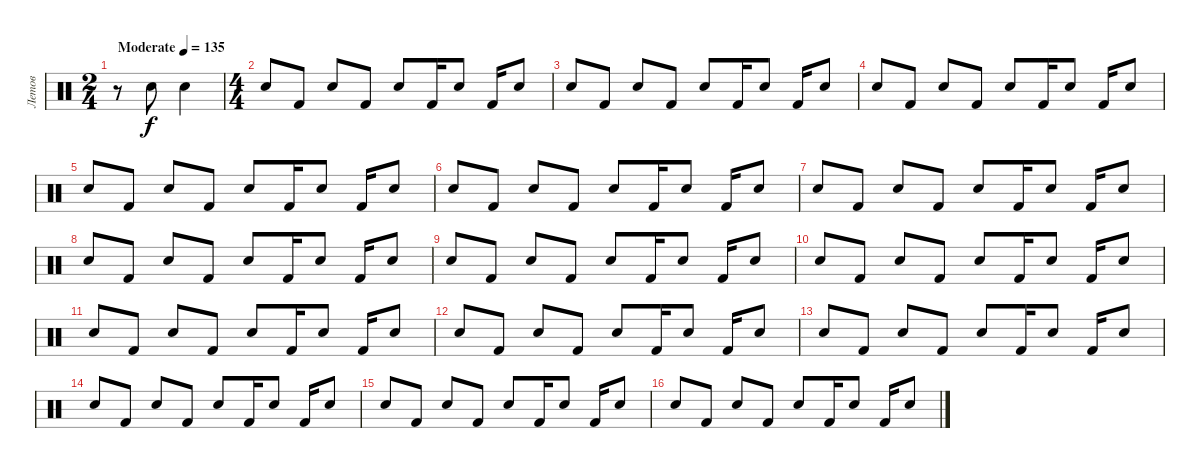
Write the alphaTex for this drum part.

\track ("Летов" "Летов") {instrument percussion}
\staff {score}
\articulation defaults
\ts (2 4)
\tempo (135 "Moderate")
\clef neutral
\ks c
r.8{dy f} "Electric Snare (hit)".8 "Electric Snare (hit)".4 |
\ts (4 4)
"Electric Snare (hit)".8 "Kick (hit) 2".8 "Electric Snare (hit)".8 "Kick (hit) 2".8 "Electric Snare (hit)".8 "Kick (hit) 2".16 "Electric Snare (hit)".8 "Kick (hit) 2".16 "Electric Snare (hit)".8 |
"Electric Snare (hit)".8 "Kick (hit) 2".8 "Electric Snare (hit)".8 "Kick (hit) 2".8 "Electric Snare (hit)".8 "Kick (hit) 2".16 "Electric Snare (hit)".8 "Kick (hit) 2".16 "Electric Snare (hit)".8 |
"Electric Snare (hit)".8 "Kick (hit) 2".8 "Electric Snare (hit)".8 "Kick (hit) 2".8 "Electric Snare (hit)".8 "Kick (hit) 2".16 "Electric Snare (hit)".8 "Kick (hit) 2".16 "Electric Snare (hit)".8 |
"Electric Snare (hit)".8 "Kick (hit) 2".8 "Electric Snare (hit)".8 "Kick (hit) 2".8 "Electric Snare (hit)".8 "Kick (hit) 2".16 "Electric Snare (hit)".8 "Kick (hit) 2".16 "Electric Snare (hit)".8 |
"Electric Snare (hit)".8 "Kick (hit) 2".8 "Electric Snare (hit)".8 "Kick (hit) 2".8 "Electric Snare (hit)".8 "Kick (hit) 2".16 "Electric Snare (hit)".8 "Kick (hit) 2".16 "Electric Snare (hit)".8 |
"Electric Snare (hit)".8 "Kick (hit) 2".8 "Electric Snare (hit)".8 "Kick (hit) 2".8 "Electric Snare (hit)".8 "Kick (hit) 2".16 "Electric Snare (hit)".8 "Kick (hit) 2".16 "Electric Snare (hit)".8 |
"Electric Snare (hit)".8 "Kick (hit) 2".8 "Electric Snare (hit)".8 "Kick (hit) 2".8 "Electric Snare (hit)".8 "Kick (hit) 2".16 "Electric Snare (hit)".8 "Kick (hit) 2".16 "Electric Snare (hit)".8 |
"Electric Snare (hit)".8 "Kick (hit) 2".8 "Electric Snare (hit)".8 "Kick (hit) 2".8 "Electric Snare (hit)".8 "Kick (hit) 2".16 "Electric Snare (hit)".8 "Kick (hit) 2".16 "Electric Snare (hit)".8 |
"Electric Snare (hit)".8 "Kick (hit) 2".8 "Electric Snare (hit)".8 "Kick (hit) 2".8 "Electric Snare (hit)".8 "Kick (hit) 2".16 "Electric Snare (hit)".8 "Kick (hit) 2".16 "Electric Snare (hit)".8 |
"Electric Snare (hit)".8 "Kick (hit) 2".8 "Electric Snare (hit)".8 "Kick (hit) 2".8 "Electric Snare (hit)".8 "Kick (hit) 2".16 "Electric Snare (hit)".8 "Kick (hit) 2".16 "Electric Snare (hit)".8 |
"Electric Snare (hit)".8 "Kick (hit) 2".8 "Electric Snare (hit)".8 "Kick (hit) 2".8 "Electric Snare (hit)".8 "Kick (hit) 2".16 "Electric Snare (hit)".8 "Kick (hit) 2".16 "Electric Snare (hit)".8 |
"Electric Snare (hit)".8 "Kick (hit) 2".8 "Electric Snare (hit)".8 "Kick (hit) 2".8 "Electric Snare (hit)".8 "Kick (hit) 2".16 "Electric Snare (hit)".8 "Kick (hit) 2".16 "Electric Snare (hit)".8 |
"Electric Snare (hit)".8 "Kick (hit) 2".8 "Electric Snare (hit)".8 "Kick (hit) 2".8 "Electric Snare (hit)".8 "Kick (hit) 2".16 "Electric Snare (hit)".8 "Kick (hit) 2".16 "Electric Snare (hit)".8 |
"Electric Snare (hit)".8 "Kick (hit) 2".8 "Electric Snare (hit)".8 "Kick (hit) 2".8 "Electric Snare (hit)".8 "Kick (hit) 2".16 "Electric Snare (hit)".8 "Kick (hit) 2".16 "Electric Snare (hit)".8 |
"Electric Snare (hit)".8 "Kick (hit) 2".8 "Electric Snare (hit)".8 "Kick (hit) 2".8 "Electric Snare (hit)".8 "Kick (hit) 2".16 "Electric Snare (hit)".8 "Kick (hit) 2".16 "Electric Snare (hit)".8
